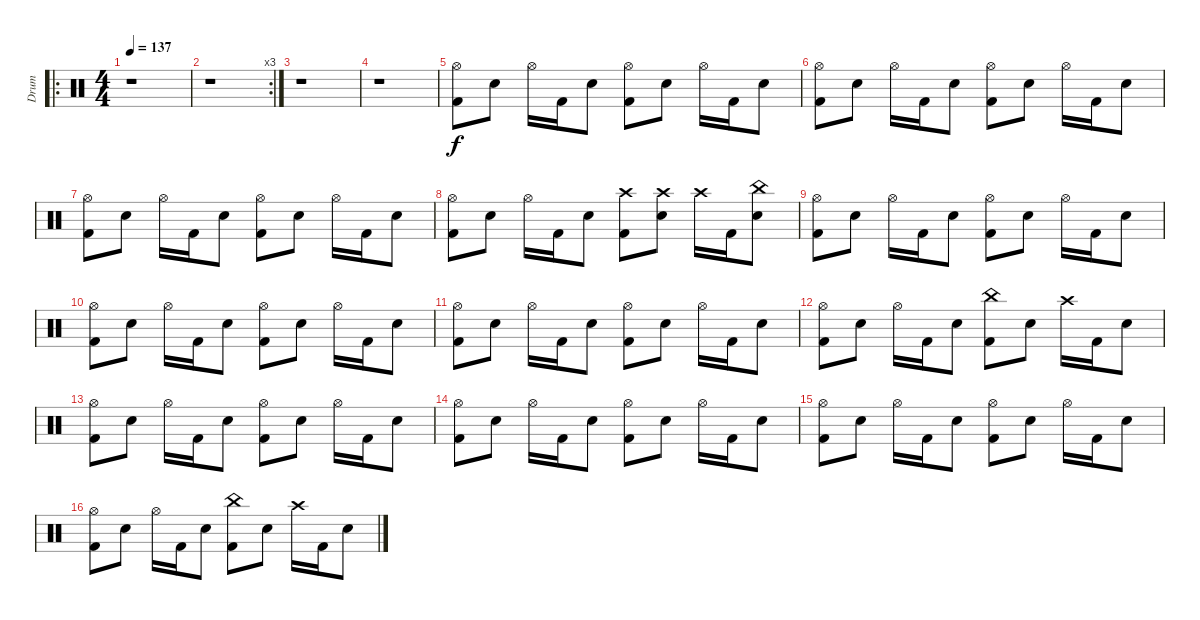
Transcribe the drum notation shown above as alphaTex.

\track ("Drum" "Drum") {instrument percussion}
\staff {score}
\articulation defaults
\ro
\ts (4 4)
\tempo 137
\clef neutral
\ks c
r.1{dy f} |
\rc 3
r.1 |
r.1 |
r.1 |
("Hi-Hat (open)" "Kick (hit) 2").8 "Snare (hit) 2".8 "Hi-Hat (open)".16 "Kick (hit) 2".16 "Snare (hit) 2".8 ("Hi-Hat (open)" "Kick (hit) 2").8 "Snare (hit) 2".8 "Hi-Hat (open)".16 "Kick (hit) 2".16 "Snare (hit) 2".8 |
("Hi-Hat (open)" "Kick (hit) 2").8 "Snare (hit) 2".8 "Hi-Hat (open)".16 "Kick (hit) 2".16 "Snare (hit) 2".8 ("Hi-Hat (open)" "Kick (hit) 2").8 "Snare (hit) 2".8 "Hi-Hat (open)".16 "Kick (hit) 2".16 "Snare (hit) 2".8 |
("Hi-Hat (open)" "Kick (hit) 2").8 "Snare (hit) 2".8 "Hi-Hat (open)".16 "Kick (hit) 2".16 "Snare (hit) 2".8 ("Hi-Hat (open)" "Kick (hit) 2").8 "Snare (hit) 2".8 "Hi-Hat (open)".16 "Kick (hit) 2".16 "Snare (hit) 2".8 |
("Hi-Hat (open)" "Kick (hit) 2").8 "Snare (hit) 2".8 "Hi-Hat (open)".16 "Kick (hit) 2".16 "Snare (hit) 2".8 ("Crash high (hit)" "Kick (hit) 2").8 ("Crash high (hit)" "Snare (hit) 2").8 "Crash high (hit)".16 "Kick (hit) 2".16 ("China (hit)" "Snare (hit) 2").8 |
("Hi-Hat (open)" "Kick (hit) 2").8 "Snare (hit) 2".8 "Hi-Hat (open)".16 "Kick (hit) 2".16 "Snare (hit) 2".8 ("Hi-Hat (open)" "Kick (hit) 2").8 "Snare (hit) 2".8 "Hi-Hat (open)".16 "Kick (hit) 2".16 "Snare (hit) 2".8 |
("Hi-Hat (open)" "Kick (hit) 2").8 "Snare (hit) 2".8 "Hi-Hat (open)".16 "Kick (hit) 2".16 "Snare (hit) 2".8 ("Hi-Hat (open)" "Kick (hit) 2").8 "Snare (hit) 2".8 "Hi-Hat (open)".16 "Kick (hit) 2".16 "Snare (hit) 2".8 |
("Hi-Hat (open)" "Kick (hit) 2").8 "Snare (hit) 2".8 "Hi-Hat (open)".16 "Kick (hit) 2".16 "Snare (hit) 2".8 ("Hi-Hat (open)" "Kick (hit) 2").8 "Snare (hit) 2".8 "Hi-Hat (open)".16 "Kick (hit) 2".16 "Snare (hit) 2".8 |
("Hi-Hat (open)" "Kick (hit) 2").8 "Snare (hit) 2".8 "Hi-Hat (open)".16 "Kick (hit) 2".16 "Snare (hit) 2".8 ("China (hit)" "Kick (hit) 2").8 "Snare (hit) 2".8 "Crash high (hit)".16 "Kick (hit) 2".16 "Snare (hit) 2".8 |
("Hi-Hat (open)" "Kick (hit) 2").8 "Snare (hit) 2".8 "Hi-Hat (open)".16 "Kick (hit) 2".16 "Snare (hit) 2".8 ("Hi-Hat (open)" "Kick (hit) 2").8 "Snare (hit) 2".8 "Hi-Hat (open)".16 "Kick (hit) 2".16 "Snare (hit) 2".8 |
("Hi-Hat (open)" "Kick (hit) 2").8 "Snare (hit) 2".8 "Hi-Hat (open)".16 "Kick (hit) 2".16 "Snare (hit) 2".8 ("Hi-Hat (open)" "Kick (hit) 2").8 "Snare (hit) 2".8 "Hi-Hat (open)".16 "Kick (hit) 2".16 "Snare (hit) 2".8 |
("Hi-Hat (open)" "Kick (hit) 2").8 "Snare (hit) 2".8 "Hi-Hat (open)".16 "Kick (hit) 2".16 "Snare (hit) 2".8 ("Hi-Hat (open)" "Kick (hit) 2").8 "Snare (hit) 2".8 "Hi-Hat (open)".16 "Kick (hit) 2".16 "Snare (hit) 2".8 |
("Hi-Hat (open)" "Kick (hit) 2").8 "Snare (hit) 2".8 "Hi-Hat (open)".16 "Kick (hit) 2".16 "Snare (hit) 2".8 ("China (hit)" "Kick (hit) 2").8 "Snare (hit) 2".8 "Crash high (hit)".16 "Kick (hit) 2".16 "Snare (hit) 2".8
